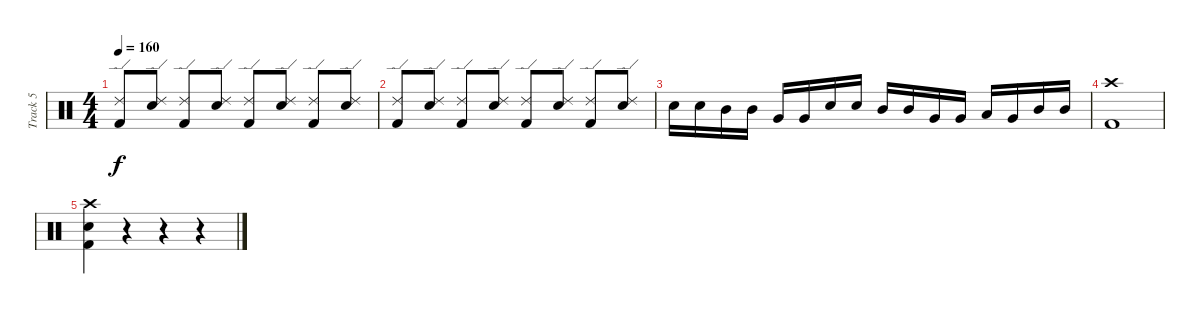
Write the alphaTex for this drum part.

\track ("Track 5" "Track 5") {instrument percussion}
\staff {score}
\articulation defaults
\ts (4 4)
\tempo 160
\clef neutral
\ks c
("Ride (edge) 2" "Kick (hit) 2").8{dy f} ("Ride (edge) 2" "Electric Snare (hit)").8 ("Ride (edge) 2" "Kick (hit) 2").8 ("Ride (edge) 2" "Electric Snare (hit)").8 ("Ride (edge) 2" "Kick (hit) 2").8 ("Ride (edge) 2" "Electric Snare (hit)").8 ("Ride (edge) 2" "Kick (hit) 2").8 ("Ride (edge) 2" "Electric Snare (hit)").8 |
("Ride (edge) 2" "Kick (hit) 2").8 ("Ride (edge) 2" "Electric Snare (hit)").8 ("Ride (edge) 2" "Kick (hit) 2").8 ("Ride (edge) 2" "Electric Snare (hit)").8 ("Ride (edge) 2" "Kick (hit) 2").8 ("Ride (edge) 2" "Electric Snare (hit)").8 ("Ride (edge) 2" "Kick (hit) 2").8 ("Ride (edge) 2" "Electric Snare (hit)").8 |
"Electric Snare (hit)".16 "Electric Snare (hit)".16 "Mid Tom (hit)".16 "Mid Tom (hit)".16 "Very Low Tom (hit)".16 "Very Low Tom (hit)".16 "Electric Snare (hit)".16 "Electric Snare (hit)".16 "Mid Tom (hit)".16 "Mid Tom (hit)".16 "Very Low Tom (hit)".16 "Very Low Tom (hit)".16 "Low Floor Tom (hit)".16 "Very Low Tom (hit)".16 "Mid Tom (hit)".16 "Mid Tom (hit)".16 |
("Crash high (hit)" "Kick (hit) 2").1 |
("Crash high (hit)" "Kick (hit) 2" "Electric Snare (hit)").4 r.4 r.4 r.4
